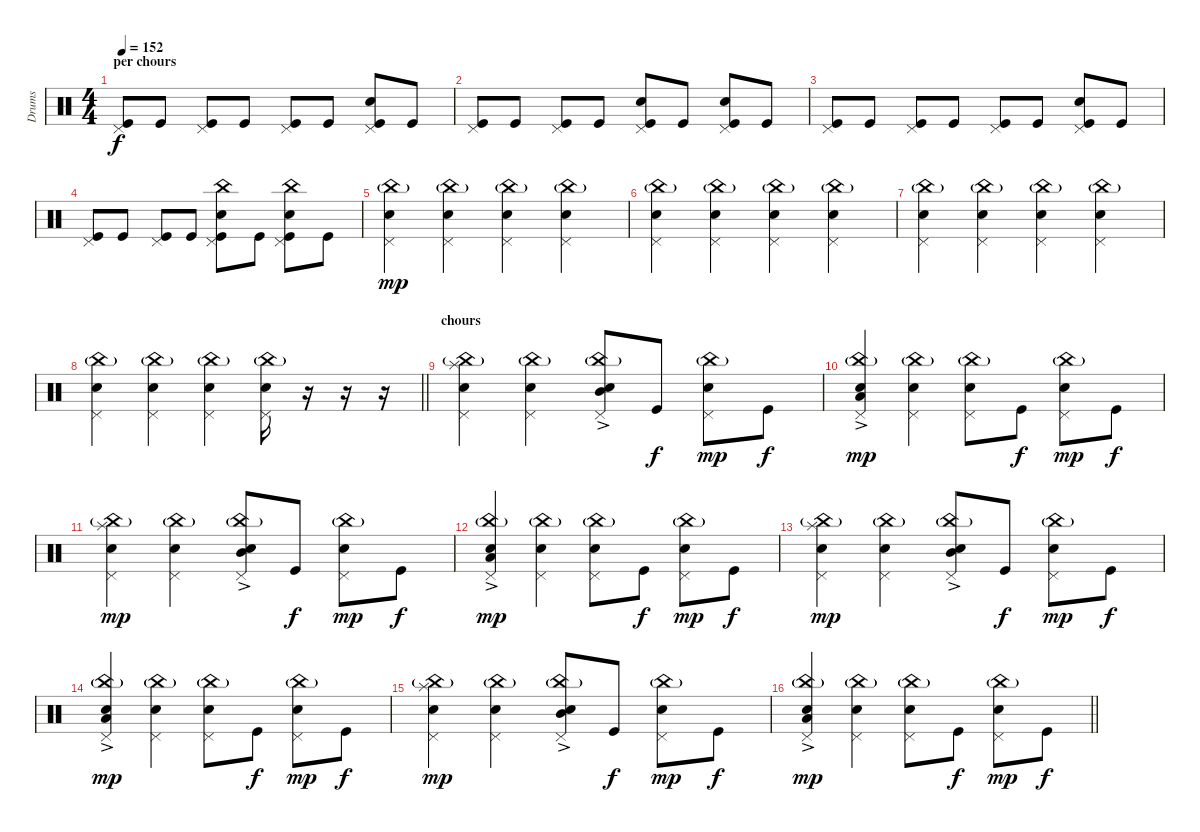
\track ("Drums" "Drums") {instrument percussion}
\staff {score}
\articulation defaults
\ts (4 4)
\section ("" "per chours")
\tempo 152
\clef neutral
\ks c
("Kick (hit)" "Pedal Hi-Hat (hit)").8{dy f} "Kick (hit)".8 ("Kick (hit)" "Pedal Hi-Hat (hit)").8 "Kick (hit)".8 ("Kick (hit)" "Pedal Hi-Hat (hit)").8 "Kick (hit)".8 ("Kick (hit)" "Pedal Hi-Hat (hit)" "Electric Snare (hit)").8 "Kick (hit)".8 |
("Kick (hit)" "Pedal Hi-Hat (hit)").8 "Kick (hit)".8 ("Kick (hit)" "Pedal Hi-Hat (hit)").8 "Kick (hit)".8 ("Kick (hit)" "Pedal Hi-Hat (hit)" "Electric Snare (hit)").8 "Kick (hit)".8 ("Kick (hit)" "Pedal Hi-Hat (hit)" "Electric Snare (hit)").8 "Kick (hit)".8 |
("Kick (hit)" "Pedal Hi-Hat (hit)").8 "Kick (hit)".8 ("Kick (hit)" "Pedal Hi-Hat (hit)").8 "Kick (hit)".8 ("Kick (hit)" "Pedal Hi-Hat (hit)").8 "Kick (hit)".8 ("Kick (hit)" "Pedal Hi-Hat (hit)" "Electric Snare (hit)").8 "Kick (hit)".8 |
("Kick (hit)" "Pedal Hi-Hat (hit)").8 "Kick (hit)".8 ("Kick (hit)" "Pedal Hi-Hat (hit)").8 "Kick (hit)".8 ("Kick (hit)" "Pedal Hi-Hat (hit)" "Electric Snare (hit)" "China (hit)").8 "Kick (hit)".8 ("Kick (hit)" "Pedal Hi-Hat (hit)" "Electric Snare (hit)" "China (hit)").8 "Kick (hit)".8 |
("China (hit)"{g} "Electric Snare (hit)" "Pedal Hi-Hat (hit)").4{dy mp} ("China (hit)"{g} "Electric Snare (hit)" "Pedal Hi-Hat (hit)").4 ("China (hit)"{g} "Electric Snare (hit)" "Pedal Hi-Hat (hit)").4 ("China (hit)"{g} "Electric Snare (hit)" "Pedal Hi-Hat (hit)").4 |
("China (hit)"{g} "Electric Snare (hit)" "Pedal Hi-Hat (hit)").4 ("China (hit)"{g} "Electric Snare (hit)" "Pedal Hi-Hat (hit)").4 ("China (hit)"{g} "Electric Snare (hit)" "Pedal Hi-Hat (hit)").4 ("China (hit)"{g} "Electric Snare (hit)" "Pedal Hi-Hat (hit)").4 |
("China (hit)"{g} "Electric Snare (hit)" "Pedal Hi-Hat (hit)").4 ("China (hit)"{g} "Electric Snare (hit)" "Pedal Hi-Hat (hit)").4 ("China (hit)"{g} "Electric Snare (hit)" "Pedal Hi-Hat (hit)").4 ("China (hit)"{g} "Electric Snare (hit)" "Pedal Hi-Hat (hit)").4 |
\barLineRight lightlight
("China (hit)"{g} "Electric Snare (hit)" "Pedal Hi-Hat (hit)").4 ("China (hit)"{g} "Electric Snare (hit)" "Pedal Hi-Hat (hit)").4 ("China (hit)"{g} "Electric Snare (hit)" "Pedal Hi-Hat (hit)").4 ("China (hit)"{g} "Electric Snare (hit)" "Pedal Hi-Hat (hit)").16 r.16 r.16 r.16 |
\section ("" "chours")
("Splash (hit)" "China (hit)"{g} "Electric Snare (hit)" "Pedal Hi-Hat (hit)").4 ("China (hit)"{g} "Electric Snare (hit)" "Pedal Hi-Hat (hit)").4 ("Mid Tom (hit)"{ac} "China (hit)"{g} "Electric Snare (hit)" "Pedal Hi-Hat (hit)").8 "Kick (hit)".8{dy f} ("China (hit)"{g} "Electric Snare (hit)" "Pedal Hi-Hat (hit)").8{dy mp} "Kick (hit)".8{dy f} |
("Low Tom (hit)"{ac} "China (hit)"{g} "Electric Snare (hit)" "Pedal Hi-Hat (hit)").4{dy mp} ("China (hit)"{g} "Electric Snare (hit)" "Pedal Hi-Hat (hit)").4 ("China (hit)"{g} "Electric Snare (hit)" "Pedal Hi-Hat (hit)").8 "Kick (hit)".8{dy f} ("China (hit)"{g} "Electric Snare (hit)" "Pedal Hi-Hat (hit)").8{dy mp} "Kick (hit)".8{dy f} |
("Splash (hit)" "China (hit)"{g} "Electric Snare (hit)" "Pedal Hi-Hat (hit)").4{dy mp} ("China (hit)"{g} "Electric Snare (hit)" "Pedal Hi-Hat (hit)").4 ("Mid Tom (hit)"{ac} "China (hit)"{g} "Electric Snare (hit)" "Pedal Hi-Hat (hit)").8 "Kick (hit)".8{dy f} ("China (hit)"{g} "Electric Snare (hit)" "Pedal Hi-Hat (hit)").8{dy mp} "Kick (hit)".8{dy f} |
("Low Tom (hit)"{ac} "China (hit)"{g} "Electric Snare (hit)" "Pedal Hi-Hat (hit)").4{dy mp} ("China (hit)"{g} "Electric Snare (hit)" "Pedal Hi-Hat (hit)").4 ("China (hit)"{g} "Electric Snare (hit)" "Pedal Hi-Hat (hit)").8 "Kick (hit)".8{dy f} ("China (hit)"{g} "Electric Snare (hit)" "Pedal Hi-Hat (hit)").8{dy mp} "Kick (hit)".8{dy f} |
("Splash (hit)" "China (hit)"{g} "Electric Snare (hit)" "Pedal Hi-Hat (hit)").4{dy mp} ("China (hit)"{g} "Electric Snare (hit)" "Pedal Hi-Hat (hit)").4 ("Mid Tom (hit)"{ac} "China (hit)"{g} "Electric Snare (hit)" "Pedal Hi-Hat (hit)").8 "Kick (hit)".8{dy f} ("China (hit)"{g} "Electric Snare (hit)" "Pedal Hi-Hat (hit)").8{dy mp} "Kick (hit)".8{dy f} |
("Low Tom (hit)"{ac} "China (hit)"{g} "Electric Snare (hit)" "Pedal Hi-Hat (hit)").4{dy mp} ("China (hit)"{g} "Electric Snare (hit)" "Pedal Hi-Hat (hit)").4 ("China (hit)"{g} "Electric Snare (hit)" "Pedal Hi-Hat (hit)").8 "Kick (hit)".8{dy f} ("China (hit)"{g} "Electric Snare (hit)" "Pedal Hi-Hat (hit)").8{dy mp} "Kick (hit)".8{dy f} |
("Splash (hit)" "China (hit)"{g} "Electric Snare (hit)" "Pedal Hi-Hat (hit)").4{dy mp} ("China (hit)"{g} "Electric Snare (hit)" "Pedal Hi-Hat (hit)").4 ("Mid Tom (hit)"{ac} "China (hit)"{g} "Electric Snare (hit)" "Pedal Hi-Hat (hit)").8 "Kick (hit)".8{dy f} ("China (hit)"{g} "Electric Snare (hit)" "Pedal Hi-Hat (hit)").8{dy mp} "Kick (hit)".8{dy f} |
\barLineRight lightlight
("Low Tom (hit)"{ac} "China (hit)"{g} "Electric Snare (hit)" "Pedal Hi-Hat (hit)").4{dy mp} ("China (hit)"{g} "Electric Snare (hit)" "Pedal Hi-Hat (hit)").4 ("China (hit)"{g} "Electric Snare (hit)" "Pedal Hi-Hat (hit)").8 "Kick (hit)".8{dy f} ("China (hit)"{g} "Electric Snare (hit)" "Pedal Hi-Hat (hit)").8{dy mp} "Kick (hit)".8{dy f}
